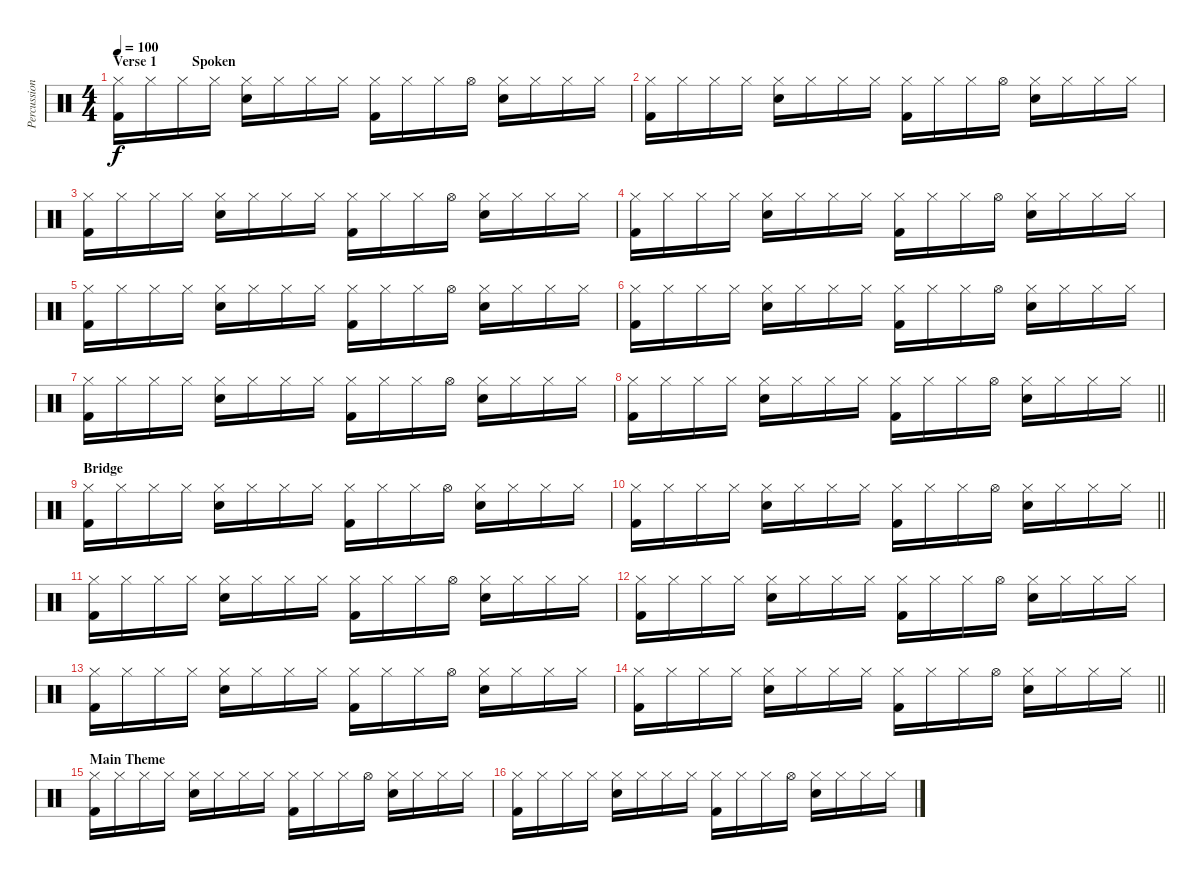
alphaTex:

\track ("Percussion" "Percussion") {instrument percussion}
\staff {score}
\articulation defaults
\ts (4 4)
\section ("" "Verse 1          Spoken")
\tempo 100
\clef neutral
\ks c
("Kick (hit) 2" "Hi-Hat (closed)").16{dy f} "Hi-Hat (closed)".16 "Hi-Hat (closed)".16 "Hi-Hat (closed)".16 ("Electric Snare (hit)" "Hi-Hat (closed)").16 "Hi-Hat (closed)".16 "Hi-Hat (closed)".16 "Hi-Hat (closed)".16 ("Kick (hit) 2" "Hi-Hat (closed)").16 "Hi-Hat (closed)".16 "Hi-Hat (closed)".16 "Hi-Hat (open)".16 ("Hi-Hat (closed)" "Electric Snare (hit)").16 "Hi-Hat (closed)".16 "Hi-Hat (closed)".16 "Hi-Hat (closed)".16 |
("Kick (hit) 2" "Hi-Hat (closed)").16 "Hi-Hat (closed)".16 "Hi-Hat (closed)".16 "Hi-Hat (closed)".16 ("Electric Snare (hit)" "Hi-Hat (closed)").16 "Hi-Hat (closed)".16 "Hi-Hat (closed)".16 "Hi-Hat (closed)".16 ("Kick (hit) 2" "Hi-Hat (closed)").16 "Hi-Hat (closed)".16 "Hi-Hat (closed)".16 "Hi-Hat (open)".16 ("Hi-Hat (closed)" "Electric Snare (hit)").16 "Hi-Hat (closed)".16 "Hi-Hat (closed)".16 "Hi-Hat (closed)".16 |
("Kick (hit) 2" "Hi-Hat (closed)").16 "Hi-Hat (closed)".16 "Hi-Hat (closed)".16 "Hi-Hat (closed)".16 ("Electric Snare (hit)" "Hi-Hat (closed)").16 "Hi-Hat (closed)".16 "Hi-Hat (closed)".16 "Hi-Hat (closed)".16 ("Kick (hit) 2" "Hi-Hat (closed)").16 "Hi-Hat (closed)".16 "Hi-Hat (closed)".16 "Hi-Hat (open)".16 ("Hi-Hat (closed)" "Electric Snare (hit)").16 "Hi-Hat (closed)".16 "Hi-Hat (closed)".16 "Hi-Hat (closed)".16 |
("Kick (hit) 2" "Hi-Hat (closed)").16 "Hi-Hat (closed)".16 "Hi-Hat (closed)".16 "Hi-Hat (closed)".16 ("Electric Snare (hit)" "Hi-Hat (closed)").16 "Hi-Hat (closed)".16 "Hi-Hat (closed)".16 "Hi-Hat (closed)".16 ("Kick (hit) 2" "Hi-Hat (closed)").16 "Hi-Hat (closed)".16 "Hi-Hat (closed)".16 "Hi-Hat (open)".16 ("Hi-Hat (closed)" "Electric Snare (hit)").16 "Hi-Hat (closed)".16 "Hi-Hat (closed)".16 "Hi-Hat (closed)".16 |
("Kick (hit) 2" "Hi-Hat (closed)").16 "Hi-Hat (closed)".16 "Hi-Hat (closed)".16 "Hi-Hat (closed)".16 ("Electric Snare (hit)" "Hi-Hat (closed)").16 "Hi-Hat (closed)".16 "Hi-Hat (closed)".16 "Hi-Hat (closed)".16 ("Kick (hit) 2" "Hi-Hat (closed)").16 "Hi-Hat (closed)".16 "Hi-Hat (closed)".16 "Hi-Hat (open)".16 ("Hi-Hat (closed)" "Electric Snare (hit)").16 "Hi-Hat (closed)".16 "Hi-Hat (closed)".16 "Hi-Hat (closed)".16 |
("Kick (hit) 2" "Hi-Hat (closed)").16 "Hi-Hat (closed)".16 "Hi-Hat (closed)".16 "Hi-Hat (closed)".16 ("Electric Snare (hit)" "Hi-Hat (closed)").16 "Hi-Hat (closed)".16 "Hi-Hat (closed)".16 "Hi-Hat (closed)".16 ("Kick (hit) 2" "Hi-Hat (closed)").16 "Hi-Hat (closed)".16 "Hi-Hat (closed)".16 "Hi-Hat (open)".16 ("Hi-Hat (closed)" "Electric Snare (hit)").16 "Hi-Hat (closed)".16 "Hi-Hat (closed)".16 "Hi-Hat (closed)".16 |
("Kick (hit) 2" "Hi-Hat (closed)").16 "Hi-Hat (closed)".16 "Hi-Hat (closed)".16 "Hi-Hat (closed)".16 ("Electric Snare (hit)" "Hi-Hat (closed)").16 "Hi-Hat (closed)".16 "Hi-Hat (closed)".16 "Hi-Hat (closed)".16 ("Kick (hit) 2" "Hi-Hat (closed)").16 "Hi-Hat (closed)".16 "Hi-Hat (closed)".16 "Hi-Hat (open)".16 ("Hi-Hat (closed)" "Electric Snare (hit)").16 "Hi-Hat (closed)".16 "Hi-Hat (closed)".16 "Hi-Hat (closed)".16 |
\barLineRight lightlight
("Kick (hit) 2" "Hi-Hat (closed)").16 "Hi-Hat (closed)".16 "Hi-Hat (closed)".16 "Hi-Hat (closed)".16 ("Electric Snare (hit)" "Hi-Hat (closed)").16 "Hi-Hat (closed)".16 "Hi-Hat (closed)".16 "Hi-Hat (closed)".16 ("Kick (hit) 2" "Hi-Hat (closed)").16 "Hi-Hat (closed)".16 "Hi-Hat (closed)".16 "Hi-Hat (open)".16 ("Hi-Hat (closed)" "Electric Snare (hit)").16 "Hi-Hat (closed)".16 "Hi-Hat (closed)".16 "Hi-Hat (closed)".16 |
\section ("" "Bridge")
("Kick (hit) 2" "Hi-Hat (closed)").16 "Hi-Hat (closed)".16 "Hi-Hat (closed)".16 "Hi-Hat (closed)".16 ("Electric Snare (hit)" "Hi-Hat (closed)").16 "Hi-Hat (closed)".16 "Hi-Hat (closed)".16 "Hi-Hat (closed)".16 ("Kick (hit) 2" "Hi-Hat (closed)").16 "Hi-Hat (closed)".16 "Hi-Hat (closed)".16 "Hi-Hat (open)".16 ("Hi-Hat (closed)" "Electric Snare (hit)").16 "Hi-Hat (closed)".16 "Hi-Hat (closed)".16 "Hi-Hat (closed)".16 |
\barLineRight lightlight
("Kick (hit) 2" "Hi-Hat (closed)").16 "Hi-Hat (closed)".16 "Hi-Hat (closed)".16 "Hi-Hat (closed)".16 ("Electric Snare (hit)" "Hi-Hat (closed)").16 "Hi-Hat (closed)".16 "Hi-Hat (closed)".16 "Hi-Hat (closed)".16 ("Kick (hit) 2" "Hi-Hat (closed)").16 "Hi-Hat (closed)".16 "Hi-Hat (closed)".16 "Hi-Hat (open)".16 ("Hi-Hat (closed)" "Electric Snare (hit)").16 "Hi-Hat (closed)".16 "Hi-Hat (closed)".16 "Hi-Hat (closed)".16 |
("Kick (hit) 2" "Hi-Hat (closed)").16 "Hi-Hat (closed)".16 "Hi-Hat (closed)".16 "Hi-Hat (closed)".16 ("Electric Snare (hit)" "Hi-Hat (closed)").16 "Hi-Hat (closed)".16 "Hi-Hat (closed)".16 "Hi-Hat (closed)".16 ("Kick (hit) 2" "Hi-Hat (closed)").16 "Hi-Hat (closed)".16 "Hi-Hat (closed)".16 "Hi-Hat (open)".16 ("Hi-Hat (closed)" "Electric Snare (hit)").16 "Hi-Hat (closed)".16 "Hi-Hat (closed)".16 "Hi-Hat (closed)".16 |
("Kick (hit) 2" "Hi-Hat (closed)").16 "Hi-Hat (closed)".16 "Hi-Hat (closed)".16 "Hi-Hat (closed)".16 ("Electric Snare (hit)" "Hi-Hat (closed)").16 "Hi-Hat (closed)".16 "Hi-Hat (closed)".16 "Hi-Hat (closed)".16 ("Kick (hit) 2" "Hi-Hat (closed)").16 "Hi-Hat (closed)".16 "Hi-Hat (closed)".16 "Hi-Hat (open)".16 ("Hi-Hat (closed)" "Electric Snare (hit)").16 "Hi-Hat (closed)".16 "Hi-Hat (closed)".16 "Hi-Hat (closed)".16 |
("Kick (hit) 2" "Hi-Hat (closed)").16 "Hi-Hat (closed)".16 "Hi-Hat (closed)".16 "Hi-Hat (closed)".16 ("Electric Snare (hit)" "Hi-Hat (closed)").16 "Hi-Hat (closed)".16 "Hi-Hat (closed)".16 "Hi-Hat (closed)".16 ("Kick (hit) 2" "Hi-Hat (closed)").16 "Hi-Hat (closed)".16 "Hi-Hat (closed)".16 "Hi-Hat (open)".16 ("Hi-Hat (closed)" "Electric Snare (hit)").16 "Hi-Hat (closed)".16 "Hi-Hat (closed)".16 "Hi-Hat (closed)".16 |
\barLineRight lightlight
("Kick (hit) 2" "Hi-Hat (closed)").16 "Hi-Hat (closed)".16 "Hi-Hat (closed)".16 "Hi-Hat (closed)".16 ("Electric Snare (hit)" "Hi-Hat (closed)").16 "Hi-Hat (closed)".16 "Hi-Hat (closed)".16 "Hi-Hat (closed)".16 ("Kick (hit) 2" "Hi-Hat (closed)").16 "Hi-Hat (closed)".16 "Hi-Hat (closed)".16 "Hi-Hat (open)".16 ("Hi-Hat (closed)" "Electric Snare (hit)").16 "Hi-Hat (closed)".16 "Hi-Hat (closed)".16 "Hi-Hat (closed)".16 |
\section ("" "Main Theme")
("Kick (hit) 2" "Hi-Hat (closed)").16 "Hi-Hat (closed)".16 "Hi-Hat (closed)".16 "Hi-Hat (closed)".16 ("Electric Snare (hit)" "Hi-Hat (closed)").16 "Hi-Hat (closed)".16 "Hi-Hat (closed)".16 "Hi-Hat (closed)".16 ("Kick (hit) 2" "Hi-Hat (closed)").16 "Hi-Hat (closed)".16 "Hi-Hat (closed)".16 "Hi-Hat (open)".16 ("Hi-Hat (closed)" "Electric Snare (hit)").16 "Hi-Hat (closed)".16 "Hi-Hat (closed)".16 "Hi-Hat (closed)".16 |
("Kick (hit) 2" "Hi-Hat (closed)").16 "Hi-Hat (closed)".16 "Hi-Hat (closed)".16 "Hi-Hat (closed)".16 ("Electric Snare (hit)" "Hi-Hat (closed)").16 "Hi-Hat (closed)".16 "Hi-Hat (closed)".16 "Hi-Hat (closed)".16 ("Kick (hit) 2" "Hi-Hat (closed)").16 "Hi-Hat (closed)".16 "Hi-Hat (closed)".16 "Hi-Hat (open)".16 ("Hi-Hat (closed)" "Electric Snare (hit)").16 "Hi-Hat (closed)".16 "Hi-Hat (closed)".16 "Hi-Hat (closed)".16
